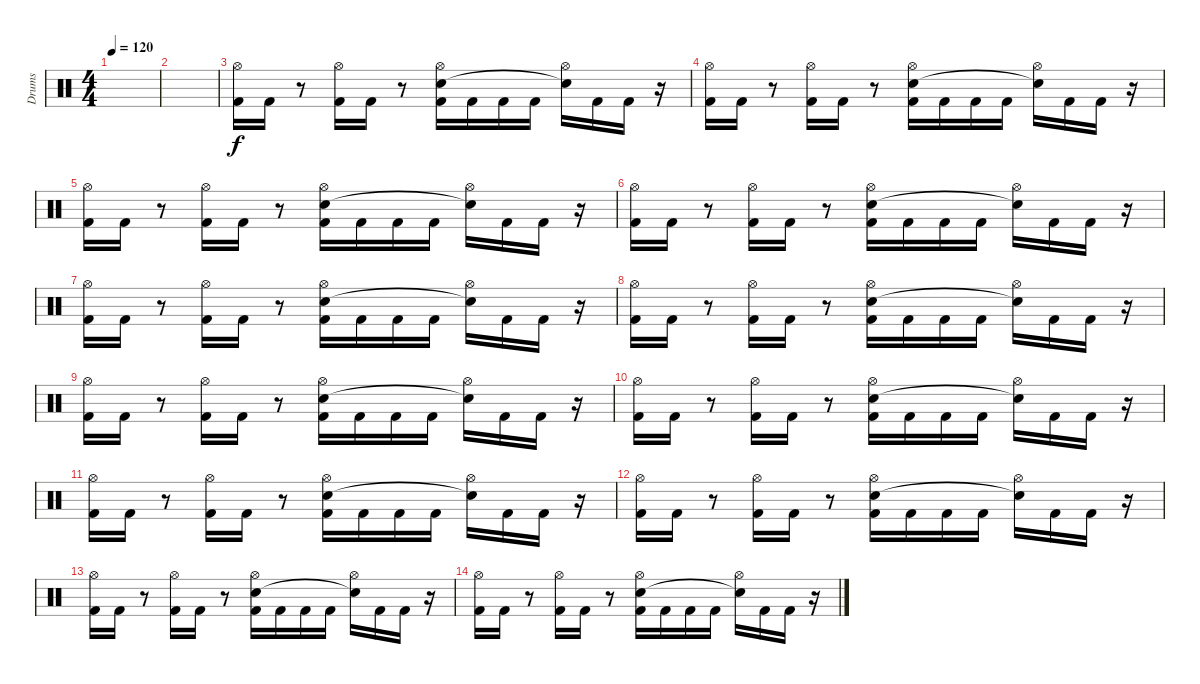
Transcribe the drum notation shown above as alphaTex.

\track ("Drums" "Drums") {instrument percussion}
\staff {score}
\articulation defaults
\ts (4 4)
\tempo 120
\clef neutral
\ks c
|
|
("Hi-Hat (open)" "Kick (hit) 2").16 "Kick (hit) 2".16 r.8 ("Hi-Hat (open)" "Kick (hit) 2").16 "Kick (hit) 2".16 r.8 ("Hi-Hat (open)" "Snare (hit) 2" "Kick (hit) 2").16 "Kick (hit) 2".16 "Kick (hit) 2".16 "Kick (hit) 2".16 ("Hi-Hat (open)" "Snare (hit)"{t}).16 "Kick (hit) 2".16 "Kick (hit) 2".16 r.16 |
("Hi-Hat (open)" "Kick (hit) 2").16 "Kick (hit) 2".16 r.8 ("Hi-Hat (open)" "Kick (hit) 2").16 "Kick (hit) 2".16 r.8 ("Hi-Hat (open)" "Snare (hit) 2" "Kick (hit) 2").16 "Kick (hit) 2".16 "Kick (hit) 2".16 "Kick (hit) 2".16 ("Hi-Hat (open)" "Snare (hit)"{t}).16 "Kick (hit) 2".16 "Kick (hit) 2".16 r.16 |
("Hi-Hat (open)" "Kick (hit) 2").16 "Kick (hit) 2".16 r.8 ("Hi-Hat (open)" "Kick (hit) 2").16 "Kick (hit) 2".16 r.8 ("Hi-Hat (open)" "Snare (hit) 2" "Kick (hit) 2").16 "Kick (hit) 2".16 "Kick (hit) 2".16 "Kick (hit) 2".16 ("Hi-Hat (open)" "Snare (hit)"{t}).16 "Kick (hit) 2".16 "Kick (hit) 2".16 r.16 |
("Hi-Hat (open)" "Kick (hit) 2").16 "Kick (hit) 2".16 r.8 ("Hi-Hat (open)" "Kick (hit) 2").16 "Kick (hit) 2".16 r.8 ("Hi-Hat (open)" "Snare (hit) 2" "Kick (hit) 2").16 "Kick (hit) 2".16 "Kick (hit) 2".16 "Kick (hit) 2".16 ("Hi-Hat (open)" "Snare (hit)"{t}).16 "Kick (hit) 2".16 "Kick (hit) 2".16 r.16 |
("Hi-Hat (open)" "Kick (hit) 2").16{volume 7} "Kick (hit) 2".16 r.8 ("Hi-Hat (open)" "Kick (hit) 2").16 "Kick (hit) 2".16 r.8 ("Hi-Hat (open)" "Snare (hit) 2" "Kick (hit) 2").16 "Kick (hit) 2".16 "Kick (hit) 2".16 "Kick (hit) 2".16 ("Hi-Hat (open)" "Snare (hit)"{t}).16 "Kick (hit) 2".16 "Kick (hit) 2".16 r.16 |
("Hi-Hat (open)" "Kick (hit) 2").16 "Kick (hit) 2".16 r.8 ("Hi-Hat (open)" "Kick (hit) 2").16 "Kick (hit) 2".16 r.8 ("Hi-Hat (open)" "Snare (hit) 2" "Kick (hit) 2").16 "Kick (hit) 2".16 "Kick (hit) 2".16 "Kick (hit) 2".16 ("Hi-Hat (open)" "Snare (hit)"{t}).16 "Kick (hit) 2".16 "Kick (hit) 2".16 r.16 |
("Hi-Hat (open)" "Kick (hit) 2").16 "Kick (hit) 2".16 r.8 ("Hi-Hat (open)" "Kick (hit) 2").16 "Kick (hit) 2".16 r.8 ("Hi-Hat (open)" "Snare (hit) 2" "Kick (hit) 2").16 "Kick (hit) 2".16 "Kick (hit) 2".16 "Kick (hit) 2".16 ("Hi-Hat (open)" "Snare (hit)"{t}).16 "Kick (hit) 2".16 "Kick (hit) 2".16 r.16 |
("Hi-Hat (open)" "Kick (hit) 2").16 "Kick (hit) 2".16 r.8 ("Hi-Hat (open)" "Kick (hit) 2").16 "Kick (hit) 2".16 r.8 ("Hi-Hat (open)" "Snare (hit) 2" "Kick (hit) 2").16 "Kick (hit) 2".16 "Kick (hit) 2".16 "Kick (hit) 2".16 ("Hi-Hat (open)" "Snare (hit)"{t}).16 "Kick (hit) 2".16 "Kick (hit) 2".16 r.16 |
("Hi-Hat (open)" "Kick (hit) 2").16{volume 0} "Kick (hit) 2".16 r.8 ("Hi-Hat (open)" "Kick (hit) 2").16 "Kick (hit) 2".16 r.8 ("Hi-Hat (open)" "Snare (hit) 2" "Kick (hit) 2").16 "Kick (hit) 2".16 "Kick (hit) 2".16 "Kick (hit) 2".16 ("Hi-Hat (open)" "Snare (hit)"{t}).16 "Kick (hit) 2".16 "Kick (hit) 2".16 r.16 |
("Hi-Hat (open)" "Kick (hit) 2").16 "Kick (hit) 2".16 r.8 ("Hi-Hat (open)" "Kick (hit) 2").16 "Kick (hit) 2".16 r.8 ("Hi-Hat (open)" "Snare (hit) 2" "Kick (hit) 2").16 "Kick (hit) 2".16 "Kick (hit) 2".16 "Kick (hit) 2".16 ("Hi-Hat (open)" "Snare (hit)"{t}).16 "Kick (hit) 2".16 "Kick (hit) 2".16 r.16 |
("Hi-Hat (open)" "Kick (hit) 2").16 "Kick (hit) 2".16 r.8 ("Hi-Hat (open)" "Kick (hit) 2").16 "Kick (hit) 2".16 r.8 ("Hi-Hat (open)" "Snare (hit) 2" "Kick (hit) 2").16 "Kick (hit) 2".16 "Kick (hit) 2".16 "Kick (hit) 2".16 ("Hi-Hat (open)" "Snare (hit)"{t}).16 "Kick (hit) 2".16 "Kick (hit) 2".16 r.16 |
("Hi-Hat (open)" "Kick (hit) 2").16 "Kick (hit) 2".16 r.8 ("Hi-Hat (open)" "Kick (hit) 2").16 "Kick (hit) 2".16 r.8 ("Hi-Hat (open)" "Snare (hit) 2" "Kick (hit) 2").16 "Kick (hit) 2".16 "Kick (hit) 2".16 "Kick (hit) 2".16 ("Hi-Hat (open)" "Snare (hit)"{t}).16 "Kick (hit) 2".16 "Kick (hit) 2".16 r.16
